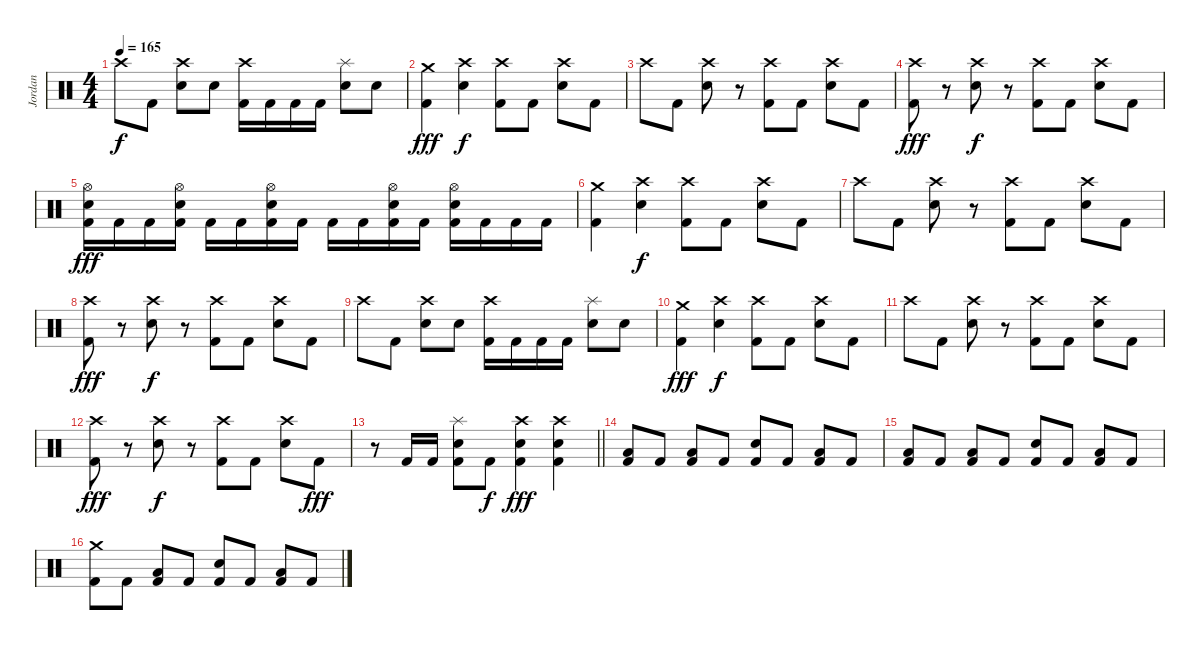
\track ("Jordan" "Jordan") {instrument percussion}
\staff {score}
\articulation defaults
\ts (4 4)
\tempo 165
\clef neutral
\ks c "Crash high (hit)".8{dy f} "Kick (hit) 2".8
("Crash high (hit)" "Electric Snare (hit)").8 "Electric Snare (hit)".8 ("Crash high (hit)" "Kick (hit) 2").16 "Kick (hit) 2".16 "Kick (hit) 2".16 "Kick (hit) 2".16 ("Splash (hit)" "Electric Snare (hit)").8 "Electric Snare (hit)".8 |
("Crash medium (hit)" "Kick (hit) 2").4{dy fff} ("Crash high (hit)" "Electric Snare (hit)").4{dy f} ("Crash high (hit)" "Kick (hit) 2").8 "Kick (hit) 2".8 ("Crash high (hit)" "Electric Snare (hit)").8 "Kick (hit) 2".8 |
"Crash high (hit)".8 "Kick (hit) 2".8 ("Crash high (hit)" "Electric Snare (hit)").8 r.8 ("Crash high (hit)" "Kick (hit) 2").8 "Kick (hit) 2".8 ("Crash high (hit)" "Electric Snare (hit)").8 "Kick (hit) 2".8 |
("Crash high (hit)" "Kick (hit) 2").8{dy fff} r.8 ("Crash high (hit)" "Electric Snare (hit)").8{dy f} r.8 ("Crash high (hit)" "Kick (hit) 2").8 "Kick (hit) 2".8 ("Crash high (hit)" "Electric Snare (hit)").8 "Kick (hit) 2".8 |
("Hi-Hat (open)" "Electric Snare (hit)" "Kick (hit) 2").16{dy fff} "Kick (hit) 2".16 "Kick (hit) 2".16 ("Hi-Hat (open)" "Electric Snare (hit)" "Kick (hit) 2").16 "Kick (hit) 2".16 "Kick (hit) 2".16 ("Hi-Hat (open)" "Electric Snare (hit)" "Kick (hit) 2").16 "Kick (hit) 2".16 "Kick (hit) 2".16 "Kick (hit) 2".16 ("Hi-Hat (open)" "Electric Snare (hit)" "Kick (hit) 2").16 "Kick (hit) 2".16 ("Hi-Hat (open)" "Electric Snare (hit)" "Kick (hit) 2").16 "Kick (hit) 2".16 "Kick (hit) 2".16 "Kick (hit) 2".16 |
("Crash medium (hit)" "Kick (hit) 2").4 ("Crash high (hit)" "Electric Snare (hit)").4{dy f} ("Crash high (hit)" "Kick (hit) 2").8 "Kick (hit) 2".8 ("Crash high (hit)" "Electric Snare (hit)").8 "Kick (hit) 2".8 |
"Crash high (hit)".8 "Kick (hit) 2".8 ("Crash high (hit)" "Electric Snare (hit)").8 r.8 ("Crash high (hit)" "Kick (hit) 2").8 "Kick (hit) 2".8 ("Crash high (hit)" "Electric Snare (hit)").8 "Kick (hit) 2".8 |
("Crash high (hit)" "Kick (hit) 2").8{dy fff} r.8 ("Crash high (hit)" "Electric Snare (hit)").8{dy f} r.8 ("Crash high (hit)" "Kick (hit) 2").8 "Kick (hit) 2".8 ("Crash high (hit)" "Electric Snare (hit)").8 "Kick (hit) 2".8 |
"Crash high (hit)".8 "Kick (hit) 2".8 ("Crash high (hit)" "Electric Snare (hit)").8 "Electric Snare (hit)".8 ("Crash high (hit)" "Kick (hit) 2").16 "Kick (hit) 2".16 "Kick (hit) 2".16 "Kick (hit) 2".16 ("Splash (hit)" "Electric Snare (hit)").8 "Electric Snare (hit)".8 |
("Crash medium (hit)" "Kick (hit) 2").4{dy fff} ("Crash high (hit)" "Electric Snare (hit)").4{dy f} ("Crash high (hit)" "Kick (hit) 2").8 "Kick (hit) 2".8 ("Crash high (hit)" "Electric Snare (hit)").8 "Kick (hit) 2".8 |
"Crash high (hit)".8 "Kick (hit) 2".8 ("Crash high (hit)" "Electric Snare (hit)").8 r.8 ("Crash high (hit)" "Kick (hit) 2").8 "Kick (hit) 2".8 ("Crash high (hit)" "Electric Snare (hit)").8 "Kick (hit) 2".8 |
("Crash high (hit)" "Kick (hit) 2").8{dy fff} r.8 ("Crash high (hit)" "Electric Snare (hit)").8{dy f} r.8 ("Crash high (hit)" "Kick (hit) 2").8 "Kick (hit) 2".8 ("Crash high (hit)" "Electric Snare (hit)").8 "Kick (hit) 2".8{dy fff} |
\barLineRight lightlight
r.8 "Kick (hit) 2".16 "Kick (hit) 2".16 ("Splash (hit)" "Electric Snare (hit)" "Kick (hit) 2").8 "Kick (hit) 2".8{dy f} ("Crash high (hit)" "Electric Snare (hit)" "Kick (hit) 2").4{dy fff} ("Crash high (hit)" "Electric Snare (hit)" "Kick (hit) 2").4 |
("Low Tom (hit)" "Kick (hit) 2").8 "Kick (hit) 2".8 ("Low Tom (hit)" "Kick (hit) 2").8 "Kick (hit) 2".8 ("Electric Snare (hit)" "Kick (hit) 2").8 "Kick (hit) 2".8 ("Low Tom (hit)" "Kick (hit) 2").8 "Kick (hit) 2".8 |
("Low Tom (hit)" "Kick (hit) 2").8 "Kick (hit) 2".8 ("Low Tom (hit)" "Kick (hit) 2").8 "Kick (hit) 2".8 ("Electric Snare (hit)" "Kick (hit) 2").8 "Kick (hit) 2".8 ("Low Tom (hit)" "Kick (hit) 2").8 "Kick (hit) 2".8 |
("Crash medium (hit)" "Kick (hit) 2").8 "Kick (hit) 2".8 ("Low Tom (hit)" "Kick (hit) 2").8 "Kick (hit) 2".8 ("Electric Snare (hit)" "Kick (hit) 2").8 "Kick (hit) 2".8 ("Low Tom (hit)" "Kick (hit) 2").8 "Kick (hit) 2".8
